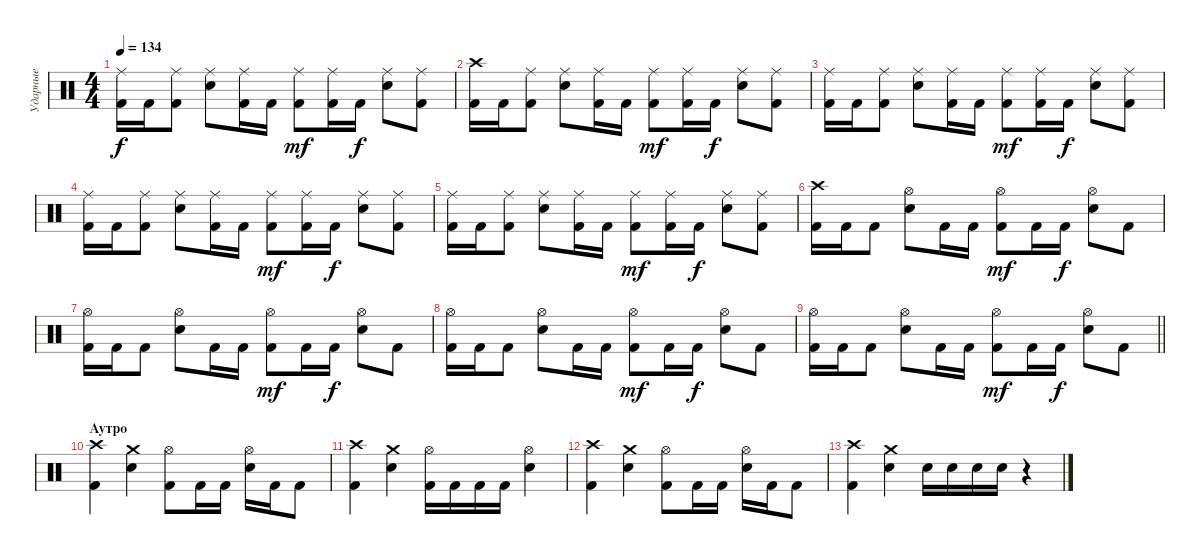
\track ("Ударные" "Ударные") {instrument percussion}
\staff {score}
\articulation defaults
\ts (4 4)
\tempo 134
\clef neutral
\ks c
("Ride (middle)" "Kick (hit) 2").16{dy f} "Kick (hit) 2".16 ("Ride (middle)" "Kick (hit) 2").8 ("Ride (middle)" "Snare (hit) 2").8 ("Ride (middle)" "Kick (hit) 2").16 "Kick (hit) 2".16 ("Ride (middle)" "Kick (hit) 2").8{dy mf} ("Ride (middle)" "Kick (hit) 2").16 "Kick (hit) 2".16{dy f} ("Ride (middle)" "Snare (hit) 2").8 ("Ride (middle)" "Kick (hit) 2").8 |
("Crash high (hit)" "Kick (hit) 2").16 "Kick (hit) 2".16 ("Ride (middle)" "Kick (hit) 2").8 ("Ride (middle)" "Snare (hit) 2").8 ("Ride (middle)" "Kick (hit) 2").16 "Kick (hit) 2".16 ("Ride (middle)" "Kick (hit) 2").8{dy mf} ("Ride (middle)" "Kick (hit) 2").16 "Kick (hit) 2".16{dy f} ("Ride (middle)" "Snare (hit) 2").8 ("Ride (middle)" "Kick (hit) 2").8 |
("Ride (middle)" "Kick (hit) 2").16 "Kick (hit) 2".16 ("Ride (middle)" "Kick (hit) 2").8 ("Ride (middle)" "Snare (hit) 2").8 ("Ride (middle)" "Kick (hit) 2").16 "Kick (hit) 2".16 ("Ride (middle)" "Kick (hit) 2").8{dy mf} ("Ride (middle)" "Kick (hit) 2").16 "Kick (hit) 2".16{dy f} ("Ride (middle)" "Snare (hit) 2").8 ("Ride (middle)" "Kick (hit) 2").8 |
("Ride (middle)" "Kick (hit) 2").16 "Kick (hit) 2".16 ("Ride (middle)" "Kick (hit) 2").8 ("Ride (middle)" "Snare (hit) 2").8 ("Ride (middle)" "Kick (hit) 2").16 "Kick (hit) 2".16 ("Ride (middle)" "Kick (hit) 2").8{dy mf} ("Ride (middle)" "Kick (hit) 2").16 "Kick (hit) 2".16{dy f} ("Ride (middle)" "Snare (hit) 2").8 ("Ride (middle)" "Kick (hit) 2").8 |
("Ride (middle)" "Kick (hit) 2").16 "Kick (hit) 2".16 ("Ride (middle)" "Kick (hit) 2").8 ("Ride (middle)" "Snare (hit) 2").8 ("Ride (middle)" "Kick (hit) 2").16 "Kick (hit) 2".16 ("Ride (middle)" "Kick (hit) 2").8{dy mf} ("Ride (middle)" "Kick (hit) 2").16 "Kick (hit) 2".16{dy f} ("Ride (middle)" "Snare (hit) 2").8 ("Ride (middle)" "Kick (hit) 2").8 |
("Crash high (hit)" "Kick (hit) 2").16 "Kick (hit) 2".16 "Kick (hit) 2".8 ("Hi-Hat (open)" "Snare (hit) 2").8 "Kick (hit) 2".16 "Kick (hit) 2".16 ("Hi-Hat (open)" "Kick (hit) 2").8{dy mf} "Kick (hit) 2".16 "Kick (hit) 2".16{dy f} ("Hi-Hat (open)" "Snare (hit) 2").8 "Kick (hit) 2".8 |
("Hi-Hat (open)" "Kick (hit) 2").16 "Kick (hit) 2".16 "Kick (hit) 2".8 ("Hi-Hat (open)" "Snare (hit) 2").8 "Kick (hit) 2".16 "Kick (hit) 2".16 ("Hi-Hat (open)" "Kick (hit) 2").8{dy mf} "Kick (hit) 2".16 "Kick (hit) 2".16{dy f} ("Hi-Hat (open)" "Snare (hit) 2").8 "Kick (hit) 2".8 |
("Hi-Hat (open)" "Kick (hit) 2").16 "Kick (hit) 2".16 "Kick (hit) 2".8 ("Hi-Hat (open)" "Snare (hit) 2").8 "Kick (hit) 2".16 "Kick (hit) 2".16 ("Hi-Hat (open)" "Kick (hit) 2").8{dy mf} "Kick (hit) 2".16 "Kick (hit) 2".16{dy f} ("Hi-Hat (open)" "Snare (hit) 2").8 "Kick (hit) 2".8 |
\barLineRight lightlight
("Hi-Hat (open)" "Kick (hit) 2").16 "Kick (hit) 2".16 "Kick (hit) 2".8 ("Hi-Hat (open)" "Snare (hit) 2").8 "Kick (hit) 2".16 "Kick (hit) 2".16 ("Hi-Hat (open)" "Kick (hit) 2").8{dy mf} "Kick (hit) 2".16 "Kick (hit) 2".16{dy f} ("Hi-Hat (open)" "Snare (hit) 2").8 "Kick (hit) 2".8 |
\section ("" "Аутро")
("Crash high (hit)" "Kick (hit) 2").4 ("Crash medium (hit)" "Snare (hit) 2").4 ("Hi-Hat (open)" "Kick (hit) 2").8 "Kick (hit) 2".16 "Kick (hit) 2".16 ("Hi-Hat (open)" "Snare (hit) 2").16 "Kick (hit) 2".16 "Kick (hit) 2".8 |
("Crash high (hit)" "Kick (hit) 2").4 ("Crash medium (hit)" "Snare (hit) 2").4 ("Hi-Hat (open)" "Kick (hit) 2").16 "Kick (hit) 2".16 "Kick (hit) 2".16 "Kick (hit) 2".16 ("Hi-Hat (open)" "Snare (hit) 2").4 |
("Crash high (hit)" "Kick (hit) 2").4 ("Crash medium (hit)" "Snare (hit) 2").4 ("Hi-Hat (open)" "Kick (hit) 2").8 "Kick (hit) 2".16 "Kick (hit) 2".16 ("Hi-Hat (open)" "Snare (hit) 2").16 "Kick (hit) 2".16 "Kick (hit) 2".8 |
("Crash high (hit)" "Kick (hit) 2").4 ("Crash medium (hit)" "Snare (hit) 2").4 "Snare (hit) 2".16 "Snare (hit) 2".16 "Snare (hit) 2".16 "Snare (hit) 2".16 r.4
